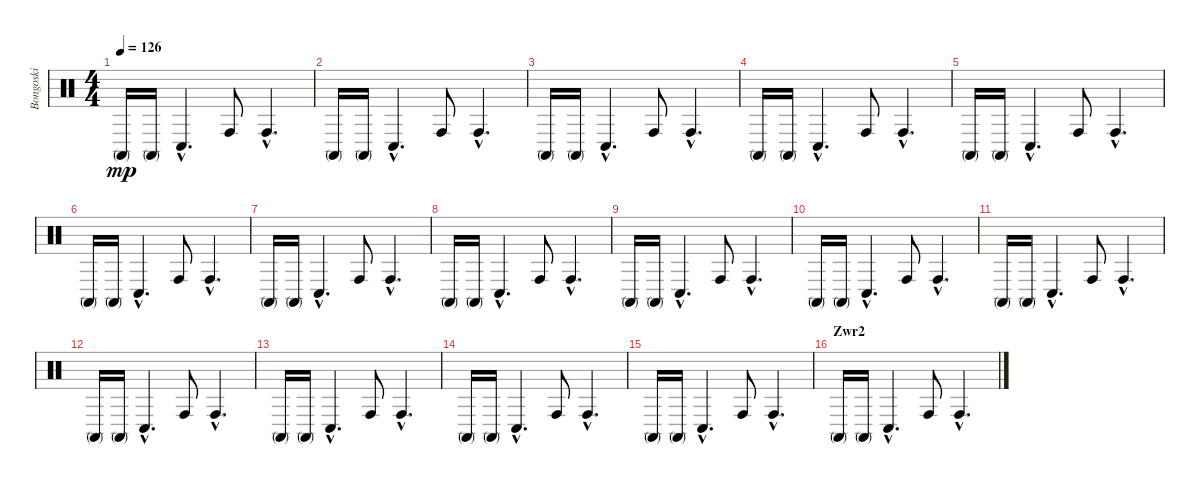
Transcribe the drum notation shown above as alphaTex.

\track ("Bongoski" "Bongoski") {instrument percussion}
\staff {score}
\articulation defaults
\ts (4 4)
\tempo 126
\clef neutral
\ks c "Conga high (mute)".16{dy mp} "Conga high (mute)".16 "Conga low (hit)"{hac}.4{d} "Conga high (hit)".8 "Conga high (hit)"{hac}.4{d}
|
"Conga high (mute)".16 "Conga high (mute)".16 "Conga low (hit)"{hac}.4{d} "Conga high (hit)".8 "Conga high (hit)"{hac}.4{d} |
"Conga high (mute)".16 "Conga high (mute)".16 "Conga low (hit)"{hac}.4{d} "Conga high (hit)".8 "Conga high (hit)"{hac}.4{d} |
"Conga high (mute)".16 "Conga high (mute)".16 "Conga low (hit)"{hac}.4{d} "Conga high (hit)".8 "Conga high (hit)"{hac}.4{d} |
"Conga high (mute)".16 "Conga high (mute)".16 "Conga low (hit)"{hac}.4{d} "Conga high (hit)".8 "Conga high (hit)"{hac}.4{d} |
"Conga high (mute)".16 "Conga high (mute)".16 "Conga low (hit)"{hac}.4{d} "Conga high (hit)".8 "Conga high (hit)"{hac}.4{d} |
"Conga high (mute)".16 "Conga high (mute)".16 "Conga low (hit)"{hac}.4{d} "Conga high (hit)".8 "Conga high (hit)"{hac}.4{d} |
"Conga high (mute)".16 "Conga high (mute)".16 "Conga low (hit)"{hac}.4{d} "Conga high (hit)".8 "Conga high (hit)"{hac}.4{d} |
"Conga high (mute)".16 "Conga high (mute)".16 "Conga low (hit)"{hac}.4{d} "Conga high (hit)".8 "Conga high (hit)"{hac}.4{d} |
"Conga high (mute)".16 "Conga high (mute)".16 "Conga low (hit)"{hac}.4{d} "Conga high (hit)".8 "Conga high (hit)"{hac}.4{d} |
"Conga high (mute)".16 "Conga high (mute)".16 "Conga low (hit)"{hac}.4{d} "Conga high (hit)".8 "Conga high (hit)"{hac}.4{d} |
"Conga high (mute)".16 "Conga high (mute)".16 "Conga low (hit)"{hac}.4{d} "Conga high (hit)".8 "Conga high (hit)"{hac}.4{d} |
"Conga high (mute)".16 "Conga high (mute)".16 "Conga low (hit)"{hac}.4{d} "Conga high (hit)".8 "Conga high (hit)"{hac}.4{d} |
"Conga high (mute)".16 "Conga high (mute)".16 "Conga low (hit)"{hac}.4{d} "Conga high (hit)".8 "Conga high (hit)"{hac}.4{d} |
"Conga high (mute)".16 "Conga high (mute)".16 "Conga low (hit)"{hac}.4{d} "Conga high (hit)".8 "Conga high (hit)"{hac}.4{d} |
\section ("" "Zwr2")
"Conga high (mute)".16 "Conga high (mute)".16 "Conga low (hit)"{hac}.4{d} "Conga high (hit)".8 "Conga high (hit)"{hac}.4{d}
